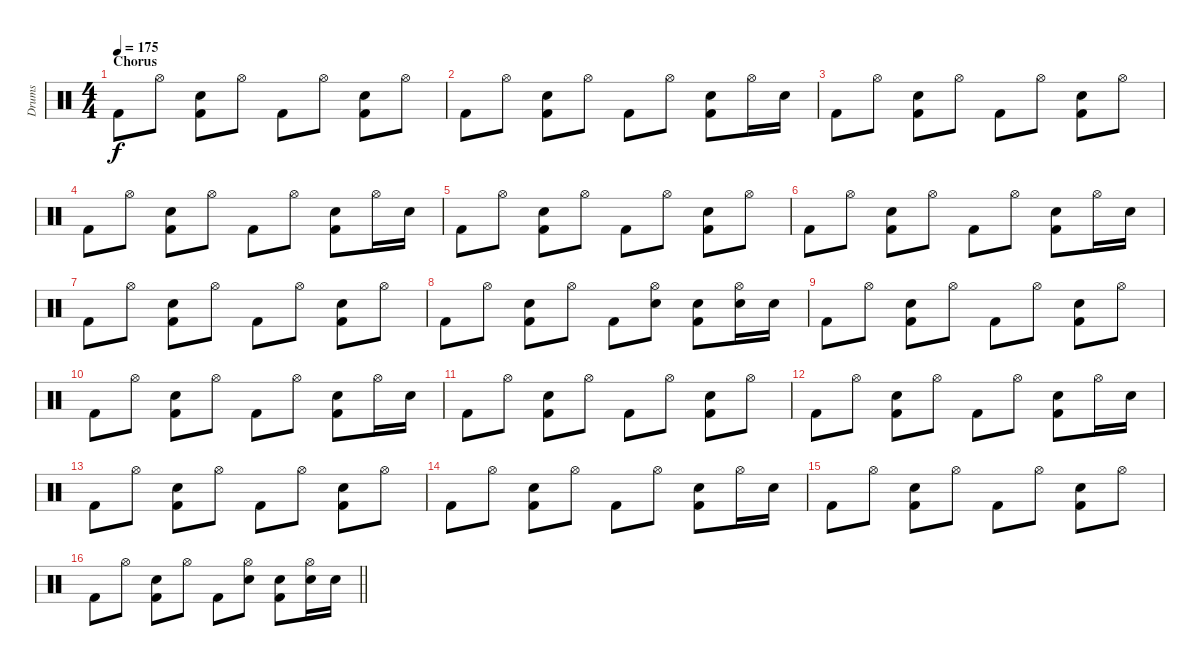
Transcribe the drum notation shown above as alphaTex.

\track ("Drums" "Drums") {instrument percussion}
\staff {score}
\articulation defaults
\ts (4 4)
\section ("" "Chorus")
\tempo 175
\clef neutral
\ks c "Kick (hit) 2".8{dy f} "Hi-Hat (open)".8
("Kick (hit) 2" "Snare (hit) 2").8 "Hi-Hat (open)".8 "Kick (hit) 2".8 "Hi-Hat (open)".8 ("Kick (hit) 2" "Snare (hit) 2").8 "Hi-Hat (open)".8 |
"Kick (hit) 2".8 "Hi-Hat (open)".8 ("Kick (hit) 2" "Snare (hit) 2").8 "Hi-Hat (open)".8 "Kick (hit) 2".8 "Hi-Hat (open)".8 ("Kick (hit) 2" "Snare (hit) 2").8 "Hi-Hat (open)".16 "Snare (hit) 2".16 |
"Kick (hit) 2".8 "Hi-Hat (open)".8 ("Kick (hit) 2" "Snare (hit) 2").8 "Hi-Hat (open)".8 "Kick (hit) 2".8 "Hi-Hat (open)".8 ("Kick (hit) 2" "Snare (hit) 2").8 "Hi-Hat (open)".8 |
"Kick (hit) 2".8 "Hi-Hat (open)".8 ("Kick (hit) 2" "Snare (hit) 2").8 "Hi-Hat (open)".8 "Kick (hit) 2".8 "Hi-Hat (open)".8 ("Kick (hit) 2" "Snare (hit) 2").8 "Hi-Hat (open)".16 "Snare (hit) 2".16 |
"Kick (hit) 2".8 "Hi-Hat (open)".8 ("Kick (hit) 2" "Snare (hit) 2").8 "Hi-Hat (open)".8 "Kick (hit) 2".8 "Hi-Hat (open)".8 ("Kick (hit) 2" "Snare (hit) 2").8 "Hi-Hat (open)".8 |
"Kick (hit) 2".8 "Hi-Hat (open)".8 ("Kick (hit) 2" "Snare (hit) 2").8 "Hi-Hat (open)".8 "Kick (hit) 2".8 "Hi-Hat (open)".8 ("Kick (hit) 2" "Snare (hit) 2").8 "Hi-Hat (open)".16 "Snare (hit) 2".16 |
"Kick (hit) 2".8 "Hi-Hat (open)".8 ("Kick (hit) 2" "Snare (hit) 2").8 "Hi-Hat (open)".8 "Kick (hit) 2".8 "Hi-Hat (open)".8 ("Kick (hit) 2" "Snare (hit) 2").8 "Hi-Hat (open)".8 |
"Kick (hit) 2".8 "Hi-Hat (open)".8 ("Kick (hit) 2" "Snare (hit) 2").8 "Hi-Hat (open)".8 "Kick (hit) 2".8 ("Hi-Hat (open)" "Snare (hit) 2").8 ("Kick (hit) 2" "Snare (hit) 2").8 ("Hi-Hat (open)" "Snare (hit) 2").16 "Snare (hit) 2".16 |
"Kick (hit) 2".8 "Hi-Hat (open)".8 ("Kick (hit) 2" "Snare (hit) 2").8 "Hi-Hat (open)".8 "Kick (hit) 2".8 "Hi-Hat (open)".8 ("Kick (hit) 2" "Snare (hit) 2").8 "Hi-Hat (open)".8 |
"Kick (hit) 2".8 "Hi-Hat (open)".8 ("Kick (hit) 2" "Snare (hit) 2").8 "Hi-Hat (open)".8 "Kick (hit) 2".8 "Hi-Hat (open)".8 ("Kick (hit) 2" "Snare (hit) 2").8 "Hi-Hat (open)".16 "Snare (hit) 2".16 |
"Kick (hit) 2".8 "Hi-Hat (open)".8 ("Kick (hit) 2" "Snare (hit) 2").8 "Hi-Hat (open)".8 "Kick (hit) 2".8 "Hi-Hat (open)".8 ("Kick (hit) 2" "Snare (hit) 2").8 "Hi-Hat (open)".8 |
"Kick (hit) 2".8 "Hi-Hat (open)".8 ("Kick (hit) 2" "Snare (hit) 2").8 "Hi-Hat (open)".8 "Kick (hit) 2".8 "Hi-Hat (open)".8 ("Kick (hit) 2" "Snare (hit) 2").8 "Hi-Hat (open)".16 "Snare (hit) 2".16 |
"Kick (hit) 2".8 "Hi-Hat (open)".8 ("Kick (hit) 2" "Snare (hit) 2").8 "Hi-Hat (open)".8 "Kick (hit) 2".8 "Hi-Hat (open)".8 ("Kick (hit) 2" "Snare (hit) 2").8 "Hi-Hat (open)".8 |
"Kick (hit) 2".8 "Hi-Hat (open)".8 ("Kick (hit) 2" "Snare (hit) 2").8 "Hi-Hat (open)".8 "Kick (hit) 2".8 "Hi-Hat (open)".8 ("Kick (hit) 2" "Snare (hit) 2").8 "Hi-Hat (open)".16 "Snare (hit) 2".16 |
"Kick (hit) 2".8 "Hi-Hat (open)".8 ("Kick (hit) 2" "Snare (hit) 2").8 "Hi-Hat (open)".8 "Kick (hit) 2".8 "Hi-Hat (open)".8 ("Kick (hit) 2" "Snare (hit) 2").8 "Hi-Hat (open)".8 |
\barLineRight lightlight "Kick (hit) 2".8 "Hi-Hat (open)".8
("Kick (hit) 2" "Snare (hit) 2").8 "Hi-Hat (open)".8 "Kick (hit) 2".8 ("Hi-Hat (open)" "Snare (hit) 2").8 ("Kick (hit) 2" "Snare (hit) 2").8 ("Hi-Hat (open)" "Snare (hit) 2").16 "Snare (hit) 2".16
